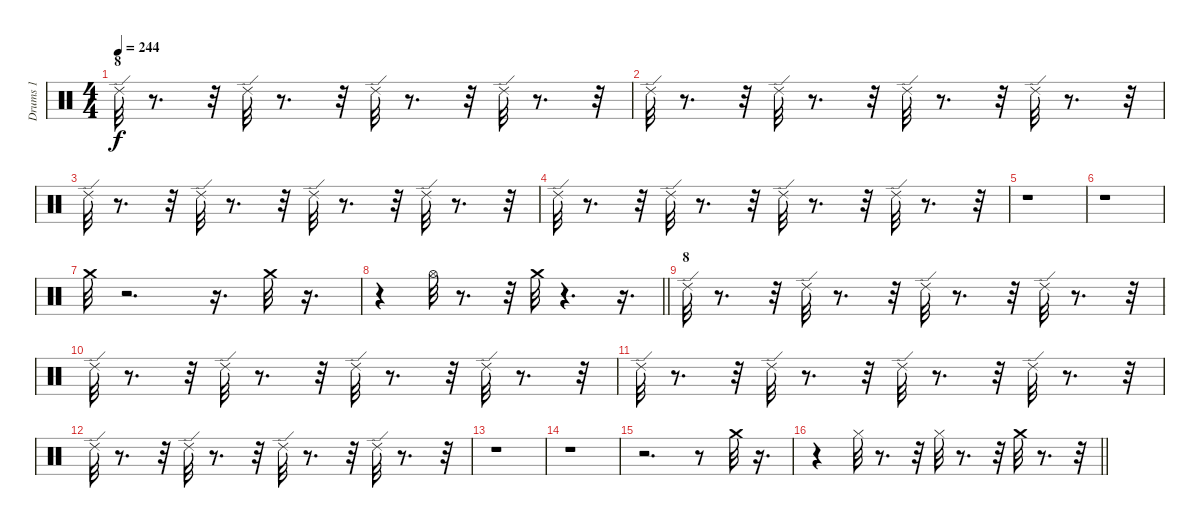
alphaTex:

\track ("Drums 1" "Drums 1") {instrument percussion}
\staff {score}
\articulation defaults
\ts (4 4)
\section ("" "8")
\tempo 244
\clef neutral
\ks c "Ride (edge) 2".32{dy f}
r.8{d} r.32 "Ride (edge) 2".32 r.8{d} r.32 "Ride (edge) 2".32 r.8{d} r.32 "Ride (edge) 2".32 r.8{d} r.32 |
"Ride (edge) 2".32 r.8{d} r.32 "Ride (edge) 2".32 r.8{d} r.32 "Ride (edge) 2".32 r.8{d} r.32 "Ride (edge) 2".32 r.8{d} r.32 |
"Ride (edge) 2".32 r.8{d} r.32 "Ride (edge) 2".32 r.8{d} r.32 "Ride (edge) 2".32 r.8{d} r.32 "Ride (edge) 2".32 r.8{d} r.32 |
"Ride (edge) 2".32 r.8{d} r.32 "Ride (edge) 2".32 r.8{d} r.32 "Ride (edge) 2".32 r.8{d} r.32 "Ride (edge) 2".32 r.8{d} r.32 |
r.1 |
r.1 |
"Crash medium (hit)".32 r.2{d} r.16{d} "Crash medium (hit)".32 r.16{d} |
\barLineRight lightlight
r.4 "Hi-Hat (open)".32 r.8{d} r.32 "Crash medium (hit)".32 r.4{d} r.16{d} |
\section ("" "8")
"Ride (edge) 2".32 r.8{d} r.32 "Ride (edge) 2".32 r.8{d} r.32 "Ride (edge) 2".32 r.8{d} r.32 "Ride (edge) 2".32 r.8{d} r.32 |
"Ride (edge) 2".32 r.8{d} r.32 "Ride (edge) 2".32 r.8{d} r.32 "Ride (edge) 2".32 r.8{d} r.32 "Ride (edge) 2".32 r.8{d} r.32 |
"Ride (edge) 2".32 r.8{d} r.32 "Ride (edge) 2".32 r.8{d} r.32 "Ride (edge) 2".32 r.8{d} r.32 "Ride (edge) 2".32 r.8{d} r.32 |
"Ride (edge) 2".32 r.8{d} r.32 "Ride (edge) 2".32 r.8{d} r.32 "Ride (edge) 2".32 r.8{d} r.32 "Ride (edge) 2".32 r.8{d} r.32 |
r.1 |
r.1 |
r.2{d} r.8 "Crash medium (hit)".32 r.16{d} |
\barLineRight lightlight
r.4 "Hi-Hat (closed)".32 r.8{d} r.32 "Hi-Hat (closed)".32 r.8{d} r.32 "Crash medium (hit)".32 r.8{d} r.32
